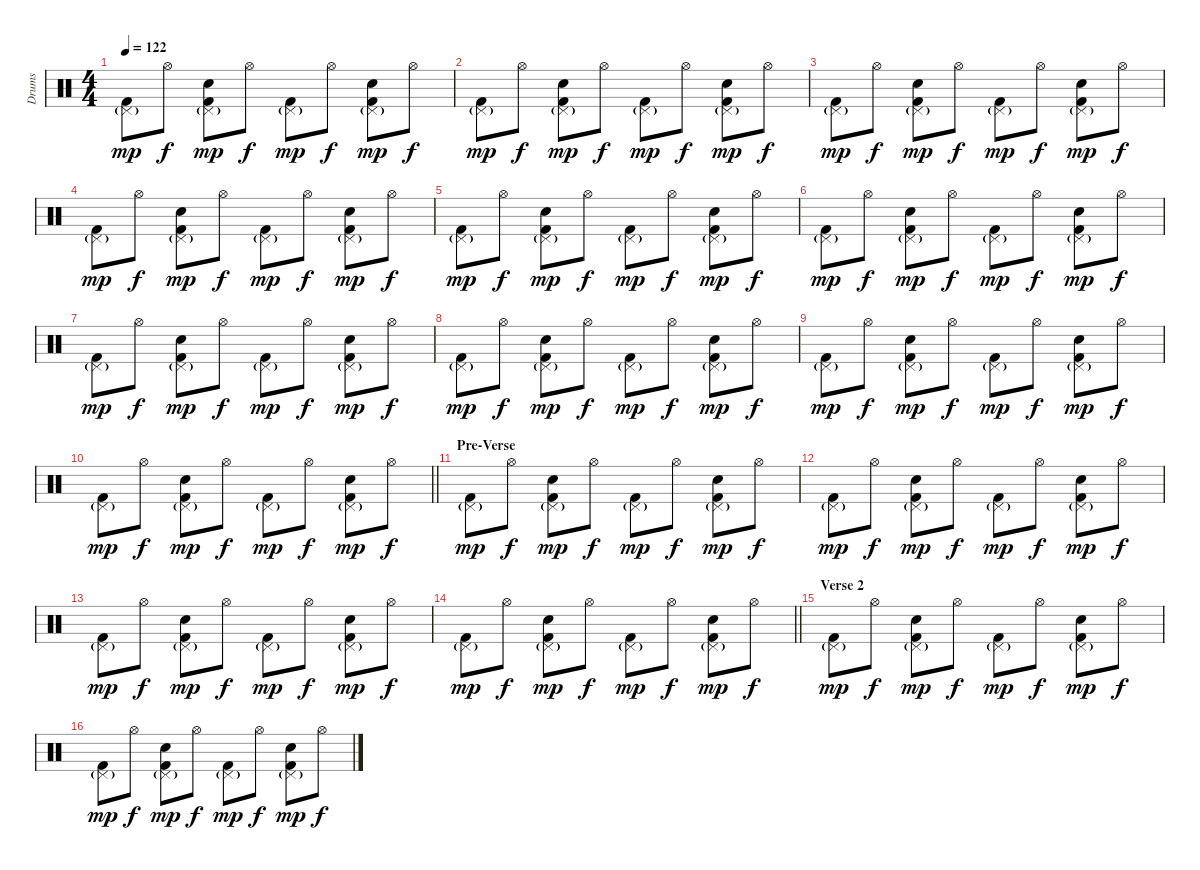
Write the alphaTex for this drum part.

\track ("Drums" "Drums") {instrument percussion}
\staff {score}
\articulation defaults
\ts (4 4)
\tempo 122
\clef neutral
\ks c
("Pedal Hi-Hat (hit)"{g} "Kick (hit) 2").8{dy mp} "Hi-Hat (open)".8{dy f} ("Pedal Hi-Hat (hit)"{g} "Snare (hit) 2" "Kick (hit) 2").8{dy mp} "Hi-Hat (open)".8{dy f} ("Pedal Hi-Hat (hit)"{g} "Kick (hit) 2").8{dy mp} "Hi-Hat (open)".8{dy f} ("Pedal Hi-Hat (hit)"{g} "Snare (hit) 2" "Kick (hit) 2").8{dy mp} "Hi-Hat (open)".8{dy f} |
("Pedal Hi-Hat (hit)"{g} "Kick (hit) 2").8{dy mp} "Hi-Hat (open)".8{dy f} ("Pedal Hi-Hat (hit)"{g} "Snare (hit) 2" "Kick (hit) 2").8{dy mp} "Hi-Hat (open)".8{dy f} ("Pedal Hi-Hat (hit)"{g} "Kick (hit) 2").8{dy mp} "Hi-Hat (open)".8{dy f} ("Pedal Hi-Hat (hit)"{g} "Snare (hit) 2" "Kick (hit) 2").8{dy mp} "Hi-Hat (open)".8{dy f} |
("Pedal Hi-Hat (hit)"{g} "Kick (hit) 2").8{dy mp} "Hi-Hat (open)".8{dy f} ("Pedal Hi-Hat (hit)"{g} "Snare (hit) 2" "Kick (hit) 2").8{dy mp} "Hi-Hat (open)".8{dy f} ("Pedal Hi-Hat (hit)"{g} "Kick (hit) 2").8{dy mp} "Hi-Hat (open)".8{dy f} ("Pedal Hi-Hat (hit)"{g} "Snare (hit) 2" "Kick (hit) 2").8{dy mp} "Hi-Hat (open)".8{dy f} |
("Pedal Hi-Hat (hit)"{g} "Kick (hit) 2").8{dy mp} "Hi-Hat (open)".8{dy f} ("Pedal Hi-Hat (hit)"{g} "Snare (hit) 2" "Kick (hit) 2").8{dy mp} "Hi-Hat (open)".8{dy f} ("Pedal Hi-Hat (hit)"{g} "Kick (hit) 2").8{dy mp} "Hi-Hat (open)".8{dy f} ("Pedal Hi-Hat (hit)"{g} "Snare (hit) 2" "Kick (hit) 2").8{dy mp} "Hi-Hat (open)".8{dy f} |
("Pedal Hi-Hat (hit)"{g} "Kick (hit) 2").8{dy mp} "Hi-Hat (open)".8{dy f} ("Pedal Hi-Hat (hit)"{g} "Snare (hit) 2" "Kick (hit) 2").8{dy mp} "Hi-Hat (open)".8{dy f} ("Pedal Hi-Hat (hit)"{g} "Kick (hit) 2").8{dy mp} "Hi-Hat (open)".8{dy f} ("Pedal Hi-Hat (hit)"{g} "Snare (hit) 2" "Kick (hit) 2").8{dy mp} "Hi-Hat (open)".8{dy f} |
("Pedal Hi-Hat (hit)"{g} "Kick (hit) 2").8{dy mp} "Hi-Hat (open)".8{dy f} ("Pedal Hi-Hat (hit)"{g} "Snare (hit) 2" "Kick (hit) 2").8{dy mp} "Hi-Hat (open)".8{dy f} ("Pedal Hi-Hat (hit)"{g} "Kick (hit) 2").8{dy mp} "Hi-Hat (open)".8{dy f} ("Pedal Hi-Hat (hit)"{g} "Snare (hit) 2" "Kick (hit) 2").8{dy mp} "Hi-Hat (open)".8{dy f} |
("Pedal Hi-Hat (hit)"{g} "Kick (hit) 2").8{dy mp} "Hi-Hat (open)".8{dy f} ("Pedal Hi-Hat (hit)"{g} "Snare (hit) 2" "Kick (hit) 2").8{dy mp} "Hi-Hat (open)".8{dy f} ("Pedal Hi-Hat (hit)"{g} "Kick (hit) 2").8{dy mp} "Hi-Hat (open)".8{dy f} ("Pedal Hi-Hat (hit)"{g} "Snare (hit) 2" "Kick (hit) 2").8{dy mp} "Hi-Hat (open)".8{dy f} |
("Pedal Hi-Hat (hit)"{g} "Kick (hit) 2").8{dy mp} "Hi-Hat (open)".8{dy f} ("Pedal Hi-Hat (hit)"{g} "Snare (hit) 2" "Kick (hit) 2").8{dy mp} "Hi-Hat (open)".8{dy f} ("Pedal Hi-Hat (hit)"{g} "Kick (hit) 2").8{dy mp} "Hi-Hat (open)".8{dy f} ("Pedal Hi-Hat (hit)"{g} "Snare (hit) 2" "Kick (hit) 2").8{dy mp} "Hi-Hat (open)".8{dy f} |
("Pedal Hi-Hat (hit)"{g} "Kick (hit) 2").8{dy mp} "Hi-Hat (open)".8{dy f} ("Pedal Hi-Hat (hit)"{g} "Snare (hit) 2" "Kick (hit) 2").8{dy mp} "Hi-Hat (open)".8{dy f} ("Pedal Hi-Hat (hit)"{g} "Kick (hit) 2").8{dy mp} "Hi-Hat (open)".8{dy f} ("Pedal Hi-Hat (hit)"{g} "Snare (hit) 2" "Kick (hit) 2").8{dy mp} "Hi-Hat (open)".8{dy f} |
\barLineRight lightlight
("Pedal Hi-Hat (hit)"{g} "Kick (hit) 2").8{dy mp} "Hi-Hat (open)".8{dy f} ("Pedal Hi-Hat (hit)"{g} "Snare (hit) 2" "Kick (hit) 2").8{dy mp} "Hi-Hat (open)".8{dy f} ("Pedal Hi-Hat (hit)"{g} "Kick (hit) 2").8{dy mp} "Hi-Hat (open)".8{dy f} ("Pedal Hi-Hat (hit)"{g} "Snare (hit) 2" "Kick (hit) 2").8{dy mp} "Hi-Hat (open)".8{dy f} |
\section ("" "Pre-Verse")
("Pedal Hi-Hat (hit)"{g} "Kick (hit) 2").8{dy mp} "Hi-Hat (open)".8{dy f} ("Pedal Hi-Hat (hit)"{g} "Snare (hit) 2" "Kick (hit) 2").8{dy mp} "Hi-Hat (open)".8{dy f} ("Pedal Hi-Hat (hit)"{g} "Kick (hit) 2").8{dy mp} "Hi-Hat (open)".8{dy f} ("Pedal Hi-Hat (hit)"{g} "Snare (hit) 2" "Kick (hit) 2").8{dy mp} "Hi-Hat (open)".8{dy f} |
("Pedal Hi-Hat (hit)"{g} "Kick (hit) 2").8{dy mp} "Hi-Hat (open)".8{dy f} ("Pedal Hi-Hat (hit)"{g} "Snare (hit) 2" "Kick (hit) 2").8{dy mp} "Hi-Hat (open)".8{dy f} ("Pedal Hi-Hat (hit)"{g} "Kick (hit) 2").8{dy mp} "Hi-Hat (open)".8{dy f} ("Pedal Hi-Hat (hit)"{g} "Snare (hit) 2" "Kick (hit) 2").8{dy mp} "Hi-Hat (open)".8{dy f} |
("Pedal Hi-Hat (hit)"{g} "Kick (hit) 2").8{dy mp} "Hi-Hat (open)".8{dy f} ("Pedal Hi-Hat (hit)"{g} "Snare (hit) 2" "Kick (hit) 2").8{dy mp} "Hi-Hat (open)".8{dy f} ("Pedal Hi-Hat (hit)"{g} "Kick (hit) 2").8{dy mp} "Hi-Hat (open)".8{dy f} ("Pedal Hi-Hat (hit)"{g} "Snare (hit) 2" "Kick (hit) 2").8{dy mp} "Hi-Hat (open)".8{dy f} |
\barLineRight lightlight
("Pedal Hi-Hat (hit)"{g} "Kick (hit) 2").8{dy mp} "Hi-Hat (open)".8{dy f} ("Pedal Hi-Hat (hit)"{g} "Snare (hit) 2" "Kick (hit) 2").8{dy mp} "Hi-Hat (open)".8{dy f} ("Pedal Hi-Hat (hit)"{g} "Kick (hit) 2").8{dy mp} "Hi-Hat (open)".8{dy f} ("Pedal Hi-Hat (hit)"{g} "Snare (hit) 2" "Kick (hit) 2").8{dy mp} "Hi-Hat (open)".8{dy f} |
\section ("" "Verse 2")
("Pedal Hi-Hat (hit)"{g} "Kick (hit) 2").8{dy mp} "Hi-Hat (open)".8{dy f} ("Pedal Hi-Hat (hit)"{g} "Snare (hit) 2" "Kick (hit) 2").8{dy mp} "Hi-Hat (open)".8{dy f} ("Pedal Hi-Hat (hit)"{g} "Kick (hit) 2").8{dy mp} "Hi-Hat (open)".8{dy f} ("Pedal Hi-Hat (hit)"{g} "Snare (hit) 2" "Kick (hit) 2").8{dy mp} "Hi-Hat (open)".8{dy f} |
("Pedal Hi-Hat (hit)"{g} "Kick (hit) 2").8{dy mp} "Hi-Hat (open)".8{dy f} ("Pedal Hi-Hat (hit)"{g} "Snare (hit) 2" "Kick (hit) 2").8{dy mp} "Hi-Hat (open)".8{dy f} ("Pedal Hi-Hat (hit)"{g} "Kick (hit) 2").8{dy mp} "Hi-Hat (open)".8{dy f} ("Pedal Hi-Hat (hit)"{g} "Snare (hit) 2" "Kick (hit) 2").8{dy mp} "Hi-Hat (open)".8{dy f}
